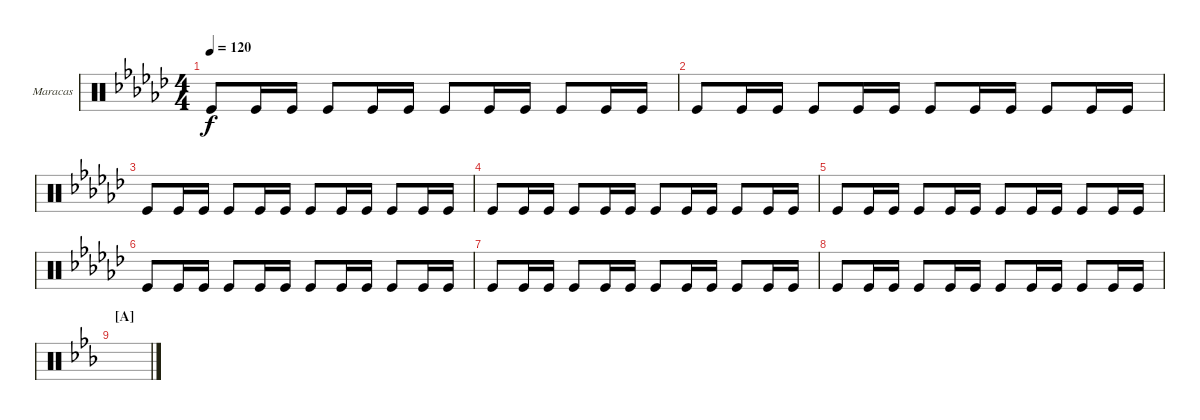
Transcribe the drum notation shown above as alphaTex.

\defaultSystemsLayout 4
\bracketExtendMode groupsimilarinstruments
\firstSystemTrackNameOrientation horizontal
\otherSystemsTrackNameOrientation horizontal
\track ("Maracas" "Maracas") {instrument percussion}
\staff {score}
\articulation defaults
\ts (4 4)
\tempo 120
\clef neutral
\ks ebminor "Kick (hit)".8{dy f} "Kick (hit)".16 "Kick (hit)".16 "Kick (hit)".8 "Kick (hit)".16 "Kick (hit)".16 "Kick (hit)".8 "Kick (hit)".16 "Kick (hit)".16 "Kick (hit)".8 "Kick (hit)".16 "Kick (hit)".16
|
"Kick (hit)".8 "Kick (hit)".16 "Kick (hit)".16 "Kick (hit)".8 "Kick (hit)".16 "Kick (hit)".16 "Kick (hit)".8 "Kick (hit)".16 "Kick (hit)".16 "Kick (hit)".8 "Kick (hit)".16 "Kick (hit)".16 |
"Kick (hit)".8 "Kick (hit)".16 "Kick (hit)".16 "Kick (hit)".8 "Kick (hit)".16 "Kick (hit)".16 "Kick (hit)".8 "Kick (hit)".16 "Kick (hit)".16 "Kick (hit)".8 "Kick (hit)".16 "Kick (hit)".16 |
"Kick (hit)".8 "Kick (hit)".16 "Kick (hit)".16 "Kick (hit)".8 "Kick (hit)".16 "Kick (hit)".16 "Kick (hit)".8 "Kick (hit)".16 "Kick (hit)".16 "Kick (hit)".8 "Kick (hit)".16 "Kick (hit)".16 |
"Kick (hit)".8 "Kick (hit)".16 "Kick (hit)".16 "Kick (hit)".8 "Kick (hit)".16 "Kick (hit)".16 "Kick (hit)".8 "Kick (hit)".16 "Kick (hit)".16 "Kick (hit)".8 "Kick (hit)".16 "Kick (hit)".16 |
"Kick (hit)".8 "Kick (hit)".16 "Kick (hit)".16 "Kick (hit)".8 "Kick (hit)".16 "Kick (hit)".16 "Kick (hit)".8 "Kick (hit)".16 "Kick (hit)".16 "Kick (hit)".8 "Kick (hit)".16 "Kick (hit)".16 |
"Kick (hit)".8 "Kick (hit)".16 "Kick (hit)".16 "Kick (hit)".8 "Kick (hit)".16 "Kick (hit)".16 "Kick (hit)".8 "Kick (hit)".16 "Kick (hit)".16 "Kick (hit)".8 "Kick (hit)".16 "Kick (hit)".16 |
"Kick (hit)".8 "Kick (hit)".16 "Kick (hit)".16 "Kick (hit)".8 "Kick (hit)".16 "Kick (hit)".16 "Kick (hit)".8 "Kick (hit)".16 "Kick (hit)".16 "Kick (hit)".8 "Kick (hit)".16 "Kick (hit)".16 |
\section ("A" "")
\ks eb
